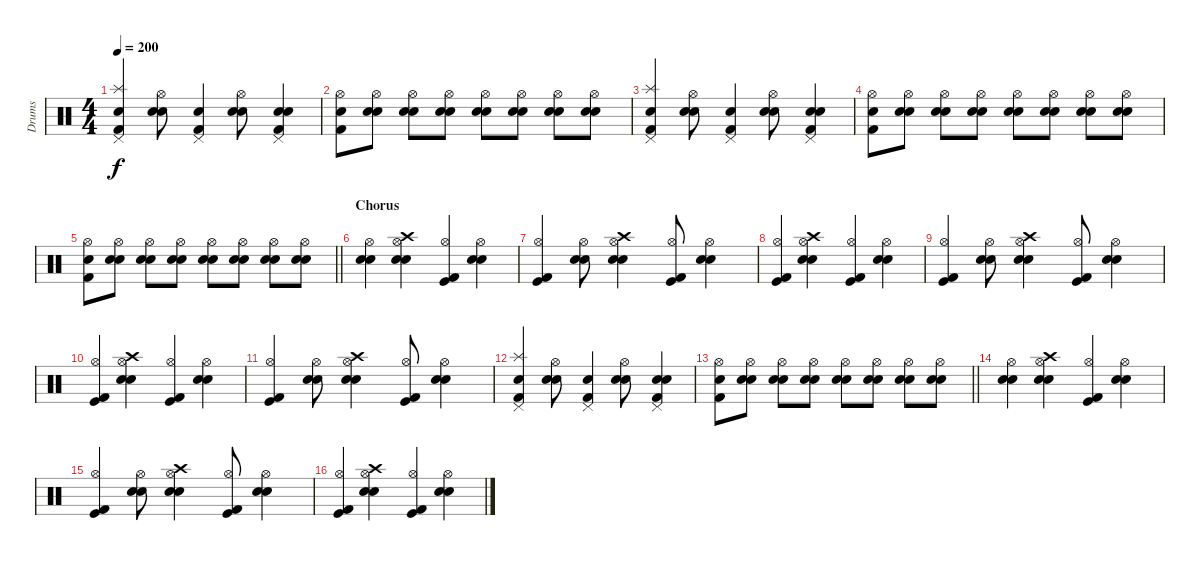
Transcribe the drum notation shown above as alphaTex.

\track ("Drums" "Drums") {instrument percussion}
\staff {score}
\articulation defaults
\ts (4 4)
\tempo 200
\clef neutral
\ks c
("Pedal Hi-Hat (hit)" "Splash (hit)" "Snare (hit) 2" "Kick (hit) 2").4{dy f} ("Hi-Hat (open)" "Snare (hit) 2" "Electric Snare (hit)").8 ("Pedal Hi-Hat (hit)" "Snare (hit) 2" "Kick (hit) 2").4 ("Hi-Hat (open)" "Snare (hit) 2" "Electric Snare (hit)").8 ("Pedal Hi-Hat (hit)" "Snare (hit) 2" "Electric Snare (hit)" "Kick (hit) 2").4 |
("Hi-Hat (open)" "Snare (hit) 2" "Kick (hit) 2").8 ("Hi-Hat (open)" "Snare (hit) 2" "Electric Snare (hit)").8 ("Hi-Hat (open)" "Snare (hit) 2" "Electric Snare (hit)").8 ("Hi-Hat (open)" "Snare (hit) 2" "Electric Snare (hit)").8 ("Hi-Hat (open)" "Snare (hit) 2" "Electric Snare (hit)").8 ("Hi-Hat (open)" "Snare (hit) 2" "Electric Snare (hit)").8 ("Hi-Hat (open)" "Snare (hit) 2" "Electric Snare (hit)").8 ("Hi-Hat (open)" "Snare (hit) 2" "Electric Snare (hit)").8 |
("Pedal Hi-Hat (hit)" "Splash (hit)" "Snare (hit) 2" "Kick (hit) 2").4 ("Hi-Hat (open)" "Snare (hit) 2" "Electric Snare (hit)").8 ("Pedal Hi-Hat (hit)" "Snare (hit) 2" "Kick (hit) 2").4 ("Hi-Hat (open)" "Snare (hit) 2" "Electric Snare (hit)").8 ("Pedal Hi-Hat (hit)" "Snare (hit) 2" "Electric Snare (hit)" "Kick (hit) 2").4 |
("Hi-Hat (open)" "Snare (hit) 2" "Kick (hit) 2").8 ("Hi-Hat (open)" "Snare (hit) 2" "Electric Snare (hit)").8 ("Hi-Hat (open)" "Snare (hit) 2" "Electric Snare (hit)").8 ("Hi-Hat (open)" "Snare (hit) 2" "Electric Snare (hit)").8 ("Hi-Hat (open)" "Snare (hit) 2" "Electric Snare (hit)").8 ("Hi-Hat (open)" "Snare (hit) 2" "Electric Snare (hit)").8 ("Hi-Hat (open)" "Snare (hit) 2" "Electric Snare (hit)").8 ("Hi-Hat (open)" "Snare (hit) 2" "Electric Snare (hit)").8 |
\barLineRight lightlight
("Hi-Hat (open)" "Snare (hit) 2" "Kick (hit) 2").8 ("Hi-Hat (open)" "Snare (hit) 2" "Electric Snare (hit)").8 ("Hi-Hat (open)" "Snare (hit) 2" "Electric Snare (hit)").8 ("Hi-Hat (open)" "Snare (hit) 2" "Electric Snare (hit)").8 ("Hi-Hat (open)" "Snare (hit) 2" "Electric Snare (hit)").8 ("Hi-Hat (open)" "Snare (hit) 2" "Electric Snare (hit)").8 ("Hi-Hat (open)" "Snare (hit) 2" "Electric Snare (hit)").8 ("Hi-Hat (open)" "Snare (hit) 2" "Electric Snare (hit)").8 |
\section ("" "Chorus")
("Hi-Hat (open)" "Snare (hit) 2" "Electric Snare (hit)").4 ("Hi-Hat (open)" "Crash high (hit)" "Snare (hit) 2" "Electric Snare (hit)").4 ("Hi-Hat (open)" "Kick (hit)" "Kick (hit) 2").4 ("Hi-Hat (open)" "Snare (hit) 2" "Electric Snare (hit)").4 |
("Hi-Hat (open)" "Kick (hit)" "Kick (hit) 2").4 ("Hi-Hat (open)" "Snare (hit) 2" "Electric Snare (hit)").8 ("Hi-Hat (open)" "Crash high (hit)" "Snare (hit) 2" "Electric Snare (hit)").4 ("Hi-Hat (open)" "Kick (hit)" "Kick (hit) 2").8 ("Hi-Hat (open)" "Snare (hit) 2" "Electric Snare (hit)").4 |
("Hi-Hat (open)" "Kick (hit)" "Kick (hit) 2").4 ("Hi-Hat (open)" "Crash high (hit)" "Snare (hit) 2" "Electric Snare (hit)").4 ("Hi-Hat (open)" "Kick (hit)" "Kick (hit) 2").4 ("Hi-Hat (open)" "Snare (hit) 2" "Electric Snare (hit)").4 |
("Hi-Hat (open)" "Kick (hit)" "Kick (hit) 2").4 ("Hi-Hat (open)" "Snare (hit) 2" "Electric Snare (hit)").8 ("Hi-Hat (open)" "Crash high (hit)" "Snare (hit) 2" "Electric Snare (hit)").4 ("Hi-Hat (open)" "Kick (hit)" "Kick (hit) 2").8 ("Hi-Hat (open)" "Snare (hit) 2" "Electric Snare (hit)").4 |
("Hi-Hat (open)" "Kick (hit)" "Kick (hit) 2").4 ("Hi-Hat (open)" "Crash high (hit)" "Snare (hit) 2" "Electric Snare (hit)").4 ("Hi-Hat (open)" "Kick (hit)" "Kick (hit) 2").4 ("Hi-Hat (open)" "Snare (hit) 2" "Electric Snare (hit)").4 |
("Hi-Hat (open)" "Kick (hit)" "Kick (hit) 2").4 ("Hi-Hat (open)" "Snare (hit) 2" "Electric Snare (hit)").8 ("Hi-Hat (open)" "Crash high (hit)" "Snare (hit) 2" "Electric Snare (hit)").4 ("Hi-Hat (open)" "Kick (hit)" "Kick (hit) 2").8 ("Hi-Hat (open)" "Snare (hit) 2" "Electric Snare (hit)").4 |
("Pedal Hi-Hat (hit)" "Splash (hit)" "Snare (hit) 2" "Kick (hit) 2").4 ("Hi-Hat (open)" "Snare (hit) 2" "Electric Snare (hit)").8 ("Pedal Hi-Hat (hit)" "Snare (hit) 2" "Kick (hit) 2").4 ("Hi-Hat (open)" "Snare (hit) 2" "Electric Snare (hit)").8 ("Pedal Hi-Hat (hit)" "Snare (hit) 2" "Electric Snare (hit)" "Kick (hit) 2").4 |
\barLineRight lightlight
("Hi-Hat (open)" "Snare (hit) 2" "Kick (hit) 2").8 ("Hi-Hat (open)" "Snare (hit) 2" "Electric Snare (hit)").8 ("Hi-Hat (open)" "Snare (hit) 2" "Electric Snare (hit)").8 ("Hi-Hat (open)" "Snare (hit) 2" "Electric Snare (hit)").8 ("Hi-Hat (open)" "Snare (hit) 2" "Electric Snare (hit)").8 ("Hi-Hat (open)" "Snare (hit) 2" "Electric Snare (hit)").8 ("Hi-Hat (open)" "Snare (hit) 2" "Electric Snare (hit)").8 ("Hi-Hat (open)" "Snare (hit) 2" "Electric Snare (hit)").8 |
("Hi-Hat (open)" "Snare (hit) 2" "Electric Snare (hit)").4 ("Hi-Hat (open)" "Crash high (hit)" "Snare (hit) 2" "Electric Snare (hit)").4 ("Hi-Hat (open)" "Kick (hit)" "Kick (hit) 2").4 ("Hi-Hat (open)" "Snare (hit) 2" "Electric Snare (hit)").4 |
("Hi-Hat (open)" "Kick (hit)" "Kick (hit) 2").4 ("Hi-Hat (open)" "Snare (hit) 2" "Electric Snare (hit)").8 ("Hi-Hat (open)" "Crash high (hit)" "Snare (hit) 2" "Electric Snare (hit)").4 ("Hi-Hat (open)" "Kick (hit)" "Kick (hit) 2").8 ("Hi-Hat (open)" "Snare (hit) 2" "Electric Snare (hit)").4 |
("Hi-Hat (open)" "Kick (hit)" "Kick (hit) 2").4 ("Hi-Hat (open)" "Crash high (hit)" "Snare (hit) 2" "Electric Snare (hit)").4 ("Hi-Hat (open)" "Kick (hit)" "Kick (hit) 2").4 ("Hi-Hat (open)" "Snare (hit) 2" "Electric Snare (hit)").4
